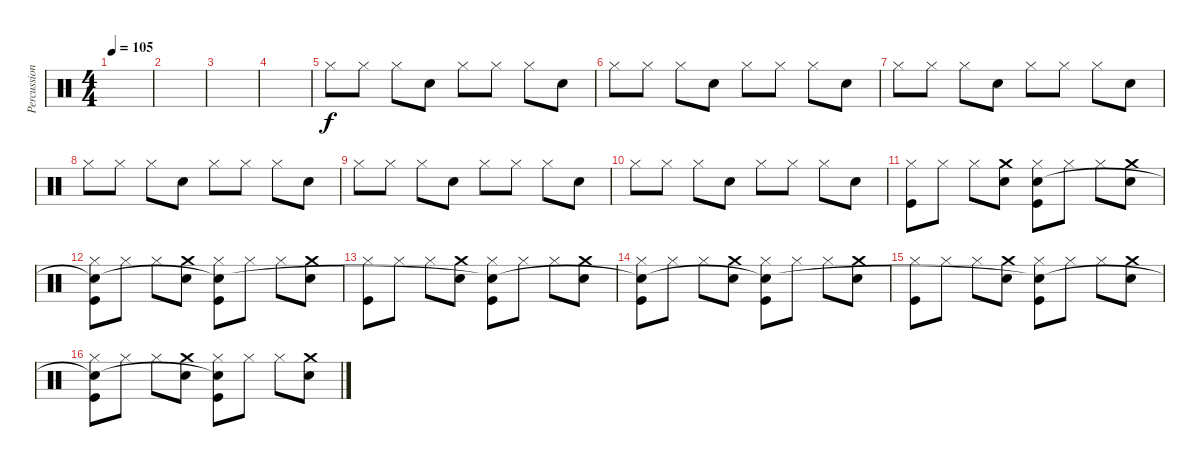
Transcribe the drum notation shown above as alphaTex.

\track ("Percussion" "Percussion") {instrument percussion}
\staff {score}
\articulation defaults
\ts (4 4)
\tempo 105
\clef neutral
\ks c
|
|
|
|
"Hi-Hat (closed)".8 "Hi-Hat (closed)".8 "Hi-Hat (closed)".8 "Snare (hit) 2".8 "Hi-Hat (closed)".8 "Hi-Hat (closed)".8 "Hi-Hat (closed)".8 "Snare (hit) 2".8 |
"Hi-Hat (closed)".8 "Hi-Hat (closed)".8 "Hi-Hat (closed)".8 "Snare (hit) 2".8 "Hi-Hat (closed)".8 "Hi-Hat (closed)".8 "Hi-Hat (closed)".8 "Snare (hit) 2".8 |
"Hi-Hat (closed)".8 "Hi-Hat (closed)".8 "Hi-Hat (closed)".8 "Snare (hit) 2".8 "Hi-Hat (closed)".8 "Hi-Hat (closed)".8 "Hi-Hat (closed)".8 "Snare (hit) 2".8 |
"Hi-Hat (closed)".8 "Hi-Hat (closed)".8 "Hi-Hat (closed)".8 "Snare (hit) 2".8 "Hi-Hat (closed)".8 "Hi-Hat (closed)".8 "Hi-Hat (closed)".8 "Snare (hit) 2".8 |
"Hi-Hat (closed)".8 "Hi-Hat (closed)".8 "Hi-Hat (closed)".8 "Snare (hit) 2".8 "Hi-Hat (closed)".8 "Hi-Hat (closed)".8 "Hi-Hat (closed)".8 "Snare (hit) 2".8 |
"Hi-Hat (closed)".8 "Hi-Hat (closed)".8 "Hi-Hat (closed)".8 "Snare (hit) 2".8 "Hi-Hat (closed)".8 "Hi-Hat (closed)".8 "Hi-Hat (closed)".8 "Snare (hit) 2".8 |
("Kick (hit)" "Hi-Hat (closed)").8 "Hi-Hat (closed)".8 "Hi-Hat (closed)".8 ("Snare (hit) 2" "Crash medium (hit)").8 ("Kick (hit)" "Hi-Hat (closed)" "Snare (hit)").8 "Hi-Hat (closed)".8 "Hi-Hat (closed)".8 ("Snare (hit) 2" "Crash medium (hit)").8 |
("Kick (hit)" "Hi-Hat (closed)" "Snare (hit)"{t}).8 "Hi-Hat (closed)".8 "Hi-Hat (closed)".8 ("Snare (hit) 2" "Crash medium (hit)").8 ("Kick (hit)" "Hi-Hat (closed)" "Snare (hit)"{t}).8 "Hi-Hat (closed)".8 "Hi-Hat (closed)".8 ("Snare (hit) 2" "Crash medium (hit)").8 |
("Kick (hit)" "Hi-Hat (closed)").8 "Hi-Hat (closed)".8 "Hi-Hat (closed)".8 ("Snare (hit) 2" "Crash medium (hit)").8 ("Kick (hit)" "Hi-Hat (closed)" "Snare (hit)"{t}).8 "Hi-Hat (closed)".8 "Hi-Hat (closed)".8 ("Snare (hit) 2" "Crash medium (hit)").8 |
("Kick (hit)" "Hi-Hat (closed)" "Snare (hit)"{t}).8 "Hi-Hat (closed)".8 "Hi-Hat (closed)".8 ("Snare (hit) 2" "Crash medium (hit)").8 ("Kick (hit)" "Hi-Hat (closed)" "Snare (hit)"{t}).8 "Hi-Hat (closed)".8 "Hi-Hat (closed)".8 ("Snare (hit) 2" "Crash medium (hit)").8 |
("Kick (hit)" "Hi-Hat (closed)").8 "Hi-Hat (closed)".8 "Hi-Hat (closed)".8 ("Snare (hit) 2" "Crash medium (hit)").8 ("Kick (hit)" "Hi-Hat (closed)" "Snare (hit)"{t}).8 "Hi-Hat (closed)".8 "Hi-Hat (closed)".8 ("Snare (hit) 2" "Crash medium (hit)").8 |
("Kick (hit)" "Hi-Hat (closed)" "Snare (hit)"{t}).8 "Hi-Hat (closed)".8 "Hi-Hat (closed)".8 ("Snare (hit) 2" "Crash medium (hit)").8 ("Kick (hit)" "Hi-Hat (closed)" "Snare (hit)"{t}).8 "Hi-Hat (closed)".8 "Hi-Hat (closed)".8 ("Snare (hit) 2" "Crash medium (hit)").8
